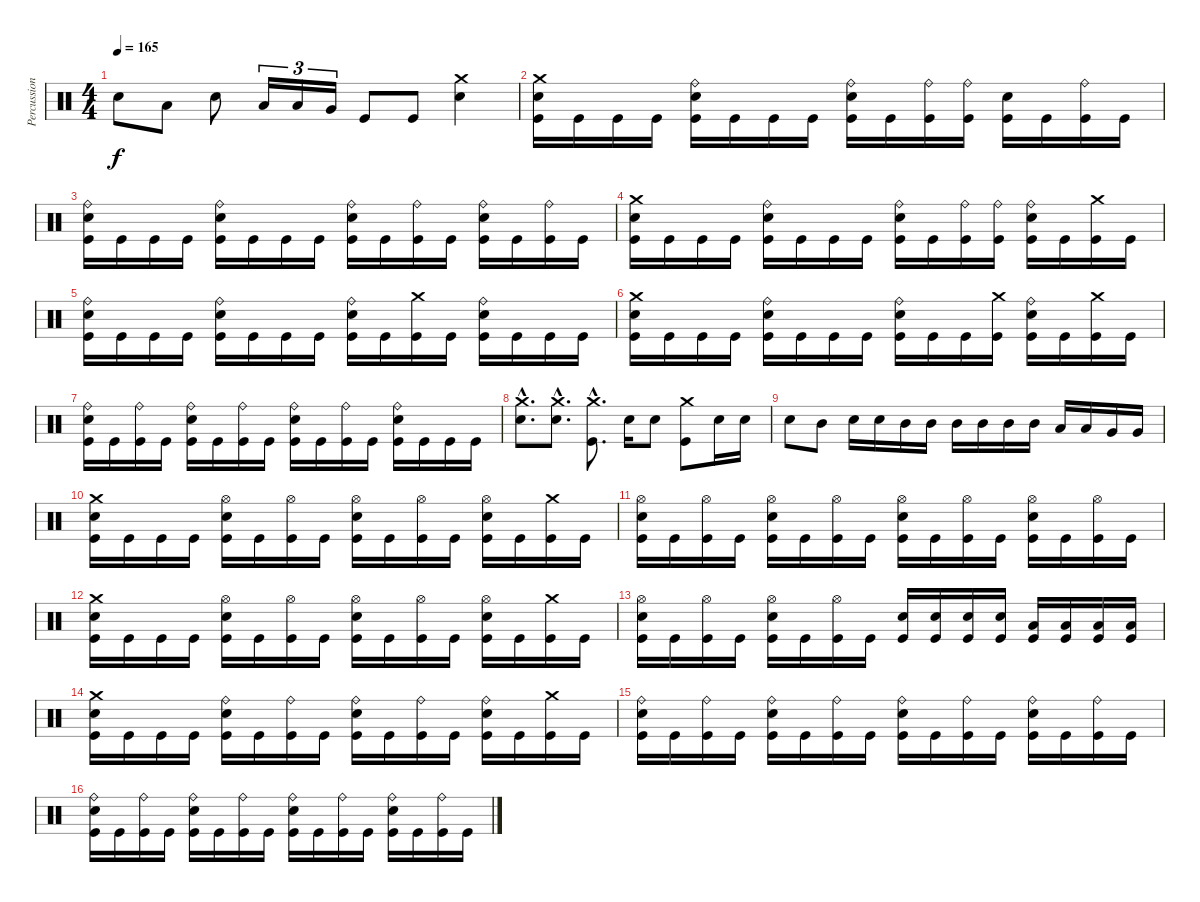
\track ("Percussions" "Percussion") {instrument percussion}
\staff {score}
\articulation defaults
\ts (4 4)
\tempo 165
\clef neutral
\ks c "Electric Snare (hit)".8{dy f} "Low Tom (hit)".8 "Electric Snare (hit)".8 "Low Tom (hit)".16{tu (3 2)} "Low Tom (hit)".16{tu (3 2)} "Very Low Tom (hit)".16{tu (3 2)} "Kick (hit)".8 "Kick (hit)".8
("Electric Snare (hit)" "Crash medium (hit)").4 |
("Kick (hit)" "Electric Snare (hit)" "Crash medium (hit)").16 "Kick (hit)".16 "Kick (hit)".16 "Kick (hit)".16 ("Kick (hit)" "Electric Snare (hit)" "Ride (bell)").16 "Kick (hit)".16 "Kick (hit)".16 "Kick (hit)".16 ("Kick (hit)" "Electric Snare (hit)" "Ride (bell)").16 "Kick (hit)".16 ("Kick (hit)" "Ride (bell)").16 ("Kick (hit)" "Ride (bell)").16 ("Kick (hit)" "Electric Snare (hit)").16 "Kick (hit)".16 ("Kick (hit)" "Ride (bell)").16 "Kick (hit)".16 |
("Kick (hit)" "Electric Snare (hit)" "Ride (bell)").16 "Kick (hit)".16 "Kick (hit)".16 "Kick (hit)".16 ("Kick (hit)" "Electric Snare (hit)" "Ride (bell)").16 "Kick (hit)".16 "Kick (hit)".16 "Kick (hit)".16 ("Kick (hit)" "Electric Snare (hit)" "Ride (bell)").16 "Kick (hit)".16 ("Kick (hit)" "Ride (bell)").16 "Kick (hit)".16 ("Kick (hit)" "Electric Snare (hit)" "Ride (bell)").16 "Kick (hit)".16 ("Kick (hit)" "Ride (bell)").16 "Kick (hit)".16 |
("Kick (hit)" "Electric Snare (hit)" "Crash medium (hit)").16 "Kick (hit)".16 "Kick (hit)".16 "Kick (hit)".16 ("Kick (hit)" "Electric Snare (hit)" "Ride (bell)").16 "Kick (hit)".16 "Kick (hit)".16 "Kick (hit)".16 ("Kick (hit)" "Electric Snare (hit)" "Ride (bell)").16 "Kick (hit)".16 ("Kick (hit)" "Ride (bell)").16 ("Kick (hit)" "Ride (bell)").16 ("Kick (hit)" "Electric Snare (hit)" "Ride (bell)").16 "Kick (hit)".16 ("Kick (hit)" "Crash medium (hit)").16 "Kick (hit)".16 |
("Kick (hit)" "Electric Snare (hit)" "Ride (bell)").16 "Kick (hit)".16 "Kick (hit)".16 "Kick (hit)".16 ("Kick (hit)" "Electric Snare (hit)" "Ride (bell)").16 "Kick (hit)".16 "Kick (hit)".16 "Kick (hit)".16 ("Kick (hit)" "Electric Snare (hit)" "Ride (bell)").16 "Kick (hit)".16 ("Kick (hit)" "Crash medium (hit)").16 "Kick (hit)".16 ("Kick (hit)" "Electric Snare (hit)" "Ride (bell)").16 "Kick (hit)".16 "Kick (hit)".16 "Kick (hit)".16 |
("Kick (hit)" "Electric Snare (hit)" "Crash medium (hit)").16 "Kick (hit)".16 "Kick (hit)".16 "Kick (hit)".16 ("Kick (hit)" "Electric Snare (hit)" "Ride (bell)").16 "Kick (hit)".16 "Kick (hit)".16 "Kick (hit)".16 ("Kick (hit)" "Electric Snare (hit)" "Ride (bell)").16 "Kick (hit)".16 "Kick (hit)".16 ("Kick (hit)" "Crash medium (hit)").16 ("Kick (hit)" "Electric Snare (hit)" "Ride (bell)").16 "Kick (hit)".16 ("Kick (hit)" "Crash medium (hit)").16 "Kick (hit)".16 |
("Kick (hit)" "Electric Snare (hit)" "Ride (bell)").16 "Kick (hit)".16 ("Kick (hit)" "Ride (bell)").16 "Kick (hit)".16 ("Kick (hit)" "Electric Snare (hit)" "Ride (bell)").16 "Kick (hit)".16 ("Kick (hit)" "Ride (bell)").16 "Kick (hit)".16 ("Kick (hit)" "Electric Snare (hit)" "Ride (bell)").16 "Kick (hit)".16 ("Kick (hit)" "Ride (bell)").16 "Kick (hit)".16 ("Kick (hit)" "Electric Snare (hit)" "Ride (bell)").16 "Kick (hit)".16 "Kick (hit)".16 "Kick (hit)".16 |
("Electric Snare (hit)"{hac} "Crash medium (hit)"{hac}).8{d} ("Electric Snare (hit)"{hac} "Crash medium (hit)"{hac}).8{d} ("Kick (hit)"{hac} "Crash medium (hit)"{hac}).8{d} "Electric Snare (hit)".16 "Electric Snare (hit)".8 ("Kick (hit)" "Crash medium (hit)").8 "Electric Snare (hit)".16 "Electric Snare (hit)".16 |
"Electric Snare (hit)".8 "Mid Tom (hit)".8 "Electric Snare (hit)".16 "Electric Snare (hit)".16 "Mid Tom (hit)".16 "Mid Tom (hit)".16 "Mid Tom (hit)".16 "Mid Tom (hit)".16 "Mid Tom (hit)".16 "Mid Tom (hit)".16 "Low Tom (hit)".16 "Low Tom (hit)".16 "Very Low Tom (hit)".16 "Very Low Tom (hit)".16 |
("Kick (hit)" "Electric Snare (hit)" "Crash medium (hit)").16 "Kick (hit)".16 "Kick (hit)".16 "Kick (hit)".16 ("Kick (hit)" "Electric Snare (hit)" "Hi-Hat (open)").16 "Kick (hit)".16 ("Kick (hit)" "Hi-Hat (open)").16 "Kick (hit)".16 ("Kick (hit)" "Electric Snare (hit)" "Hi-Hat (open)").16 "Kick (hit)".16 ("Kick (hit)" "Hi-Hat (open)").16 "Kick (hit)".16 ("Kick (hit)" "Electric Snare (hit)" "Hi-Hat (open)").16 "Kick (hit)".16 ("Kick (hit)" "Crash medium (hit)").16 "Kick (hit)".16 |
("Kick (hit)" "Electric Snare (hit)" "Hi-Hat (open)").16 "Kick (hit)".16 ("Kick (hit)" "Hi-Hat (open)").16 "Kick (hit)".16 ("Kick (hit)" "Electric Snare (hit)" "Hi-Hat (open)").16 "Kick (hit)".16 ("Kick (hit)" "Hi-Hat (open)").16 "Kick (hit)".16 ("Kick (hit)" "Electric Snare (hit)" "Hi-Hat (open)").16 "Kick (hit)".16 ("Kick (hit)" "Hi-Hat (open)").16 "Kick (hit)".16 ("Kick (hit)" "Electric Snare (hit)" "Hi-Hat (open)").16 "Kick (hit)".16 ("Kick (hit)" "Hi-Hat (open)").16 "Kick (hit)".16 |
("Kick (hit)" "Electric Snare (hit)" "Crash medium (hit)").16 "Kick (hit)".16 "Kick (hit)".16 "Kick (hit)".16 ("Kick (hit)" "Electric Snare (hit)" "Hi-Hat (open)").16 "Kick (hit)".16 ("Kick (hit)" "Hi-Hat (open)").16 "Kick (hit)".16 ("Kick (hit)" "Electric Snare (hit)" "Hi-Hat (open)").16 "Kick (hit)".16 ("Kick (hit)" "Hi-Hat (open)").16 "Kick (hit)".16 ("Kick (hit)" "Electric Snare (hit)" "Hi-Hat (open)").16 "Kick (hit)".16 ("Kick (hit)" "Crash medium (hit)").16 "Kick (hit)".16 |
("Kick (hit)" "Electric Snare (hit)" "Hi-Hat (open)").16 "Kick (hit)".16 ("Kick (hit)" "Hi-Hat (open)").16 "Kick (hit)".16 ("Kick (hit)" "Electric Snare (hit)" "Hi-Hat (open)").16 "Kick (hit)".16 ("Kick (hit)" "Hi-Hat (open)").16 "Kick (hit)".16 ("Kick (hit)" "Electric Snare (hit)").16 ("Kick (hit)" "Electric Snare (hit)").16 ("Kick (hit)" "Electric Snare (hit)").16 ("Kick (hit)" "Electric Snare (hit)").16 ("Kick (hit)" "Low Tom (hit)").16 ("Kick (hit)" "Low Tom (hit)").16 ("Kick (hit)" "Low Tom (hit)").16 ("Kick (hit)" "Low Tom (hit)").16 |
("Kick (hit)" "Electric Snare (hit)" "Crash medium (hit)").16{volume 0} "Kick (hit)".16 "Kick (hit)".16 "Kick (hit)".16 ("Kick (hit)" "Electric Snare (hit)" "Ride (bell)").16 "Kick (hit)".16 ("Kick (hit)" "Ride (bell)").16 "Kick (hit)".16 ("Kick (hit)" "Electric Snare (hit)" "Ride (bell)").16 "Kick (hit)".16 ("Kick (hit)" "Ride (bell)").16 "Kick (hit)".16 ("Kick (hit)" "Electric Snare (hit)" "Ride (bell)").16 "Kick (hit)".16 ("Kick (hit)" "Crash medium (hit)").16 "Kick (hit)".16 |
("Kick (hit)" "Electric Snare (hit)" "Ride (bell)").16 "Kick (hit)".16 ("Kick (hit)" "Ride (bell)").16 "Kick (hit)".16 ("Kick (hit)" "Electric Snare (hit)" "Ride (bell)").16 "Kick (hit)".16 ("Kick (hit)" "Ride (bell)").16 "Kick (hit)".16 ("Kick (hit)" "Electric Snare (hit)" "Ride (bell)").16 "Kick (hit)".16 ("Kick (hit)" "Ride (bell)").16 "Kick (hit)".16 ("Kick (hit)" "Electric Snare (hit)" "Ride (bell)").16 "Kick (hit)".16 ("Kick (hit)" "Ride (bell)").16 "Kick (hit)".16 |
("Kick (hit)" "Electric Snare (hit)" "Ride (bell)").16 "Kick (hit)".16 ("Kick (hit)" "Ride (bell)").16 "Kick (hit)".16 ("Kick (hit)" "Electric Snare (hit)" "Ride (bell)").16 "Kick (hit)".16 ("Kick (hit)" "Ride (bell)").16 "Kick (hit)".16 ("Kick (hit)" "Electric Snare (hit)" "Ride (bell)").16 "Kick (hit)".16 ("Kick (hit)" "Ride (bell)").16 "Kick (hit)".16 ("Kick (hit)" "Electric Snare (hit)" "Ride (bell)").16 "Kick (hit)".16 ("Kick (hit)" "Ride (bell)").16 "Kick (hit)".16
